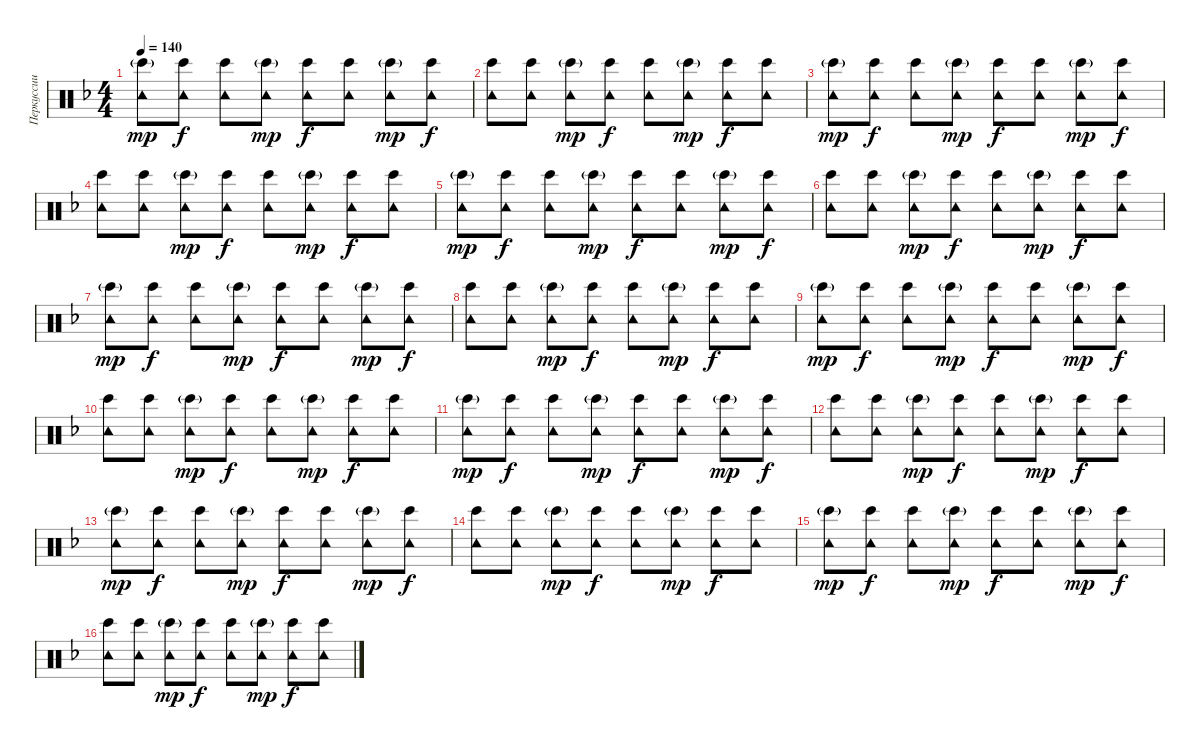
\track ("Перкуссии" "Перкуссии") {instrument percussion}
\staff {score}
\articulation defaults
\ts (4 4)
\tempo 140
\clef neutral
\ks dminor
("Bongo High (hit)"{g} "Tambourine (hit)").8{dy mp} ("Bongo High (hit)" "Tambourine (hit)").8{dy f} ("Bongo High (hit)" "Tambourine (hit)").8 ("Bongo High (hit)"{g} "Tambourine (hit)").8{dy mp} ("Bongo High (hit)" "Tambourine (hit)").8{dy f} ("Bongo High (hit)" "Tambourine (hit)").8 ("Bongo High (hit)"{g} "Tambourine (hit)").8{dy mp} ("Bongo High (hit)" "Tambourine (hit)").8{dy f} |
("Bongo High (hit)" "Tambourine (hit)").8 ("Bongo High (hit)" "Tambourine (hit)").8 ("Bongo High (hit)"{g} "Tambourine (hit)").8{dy mp} ("Bongo High (hit)" "Tambourine (hit)").8{dy f} ("Bongo High (hit)" "Tambourine (hit)").8 ("Bongo High (hit)"{g} "Tambourine (hit)").8{dy mp} ("Bongo High (hit)" "Tambourine (hit)").8{dy f} ("Bongo High (hit)" "Tambourine (hit)").8 |
("Bongo High (hit)"{g} "Tambourine (hit)").8{dy mp} ("Bongo High (hit)" "Tambourine (hit)").8{dy f} ("Bongo High (hit)" "Tambourine (hit)").8 ("Bongo High (hit)"{g} "Tambourine (hit)").8{dy mp} ("Bongo High (hit)" "Tambourine (hit)").8{dy f} ("Bongo High (hit)" "Tambourine (hit)").8 ("Bongo High (hit)"{g} "Tambourine (hit)").8{dy mp} ("Bongo High (hit)" "Tambourine (hit)").8{dy f} |
("Bongo High (hit)" "Tambourine (hit)").8 ("Bongo High (hit)" "Tambourine (hit)").8 ("Bongo High (hit)"{g} "Tambourine (hit)").8{dy mp} ("Bongo High (hit)" "Tambourine (hit)").8{dy f} ("Bongo High (hit)" "Tambourine (hit)").8 ("Bongo High (hit)"{g} "Tambourine (hit)").8{dy mp} ("Bongo High (hit)" "Tambourine (hit)").8{dy f} ("Bongo High (hit)" "Tambourine (hit)").8 |
("Bongo High (hit)"{g} "Tambourine (hit)").8{dy mp} ("Bongo High (hit)" "Tambourine (hit)").8{dy f} ("Bongo High (hit)" "Tambourine (hit)").8 ("Bongo High (hit)"{g} "Tambourine (hit)").8{dy mp} ("Bongo High (hit)" "Tambourine (hit)").8{dy f} ("Bongo High (hit)" "Tambourine (hit)").8 ("Bongo High (hit)"{g} "Tambourine (hit)").8{dy mp} ("Bongo High (hit)" "Tambourine (hit)").8{dy f} |
("Bongo High (hit)" "Tambourine (hit)").8 ("Bongo High (hit)" "Tambourine (hit)").8 ("Bongo High (hit)"{g} "Tambourine (hit)").8{dy mp} ("Bongo High (hit)" "Tambourine (hit)").8{dy f} ("Bongo High (hit)" "Tambourine (hit)").8 ("Bongo High (hit)"{g} "Tambourine (hit)").8{dy mp} ("Bongo High (hit)" "Tambourine (hit)").8{dy f} ("Bongo High (hit)" "Tambourine (hit)").8 |
("Bongo High (hit)"{g} "Tambourine (hit)").8{dy mp} ("Bongo High (hit)" "Tambourine (hit)").8{dy f} ("Bongo High (hit)" "Tambourine (hit)").8 ("Bongo High (hit)"{g} "Tambourine (hit)").8{dy mp} ("Bongo High (hit)" "Tambourine (hit)").8{dy f} ("Bongo High (hit)" "Tambourine (hit)").8 ("Bongo High (hit)"{g} "Tambourine (hit)").8{dy mp} ("Bongo High (hit)" "Tambourine (hit)").8{dy f} |
("Bongo High (hit)" "Tambourine (hit)").8 ("Bongo High (hit)" "Tambourine (hit)").8 ("Bongo High (hit)"{g} "Tambourine (hit)").8{dy mp} ("Bongo High (hit)" "Tambourine (hit)").8{dy f} ("Bongo High (hit)" "Tambourine (hit)").8 ("Bongo High (hit)"{g} "Tambourine (hit)").8{dy mp} ("Bongo High (hit)" "Tambourine (hit)").8{dy f} ("Bongo High (hit)" "Tambourine (hit)").8 |
("Bongo High (hit)"{g} "Tambourine (hit)").8{dy mp} ("Bongo High (hit)" "Tambourine (hit)").8{dy f} ("Bongo High (hit)" "Tambourine (hit)").8 ("Bongo High (hit)"{g} "Tambourine (hit)").8{dy mp} ("Bongo High (hit)" "Tambourine (hit)").8{dy f} ("Bongo High (hit)" "Tambourine (hit)").8 ("Bongo High (hit)"{g} "Tambourine (hit)").8{dy mp} ("Bongo High (hit)" "Tambourine (hit)").8{dy f} |
("Bongo High (hit)" "Tambourine (hit)").8 ("Bongo High (hit)" "Tambourine (hit)").8 ("Bongo High (hit)"{g} "Tambourine (hit)").8{dy mp} ("Bongo High (hit)" "Tambourine (hit)").8{dy f} ("Bongo High (hit)" "Tambourine (hit)").8 ("Bongo High (hit)"{g} "Tambourine (hit)").8{dy mp} ("Bongo High (hit)" "Tambourine (hit)").8{dy f} ("Bongo High (hit)" "Tambourine (hit)").8 |
("Bongo High (hit)"{g} "Tambourine (hit)").8{dy mp} ("Bongo High (hit)" "Tambourine (hit)").8{dy f} ("Bongo High (hit)" "Tambourine (hit)").8 ("Bongo High (hit)"{g} "Tambourine (hit)").8{dy mp} ("Bongo High (hit)" "Tambourine (hit)").8{dy f} ("Bongo High (hit)" "Tambourine (hit)").8 ("Bongo High (hit)"{g} "Tambourine (hit)").8{dy mp} ("Bongo High (hit)" "Tambourine (hit)").8{dy f} |
("Bongo High (hit)" "Tambourine (hit)").8 ("Bongo High (hit)" "Tambourine (hit)").8 ("Bongo High (hit)"{g} "Tambourine (hit)").8{dy mp} ("Bongo High (hit)" "Tambourine (hit)").8{dy f} ("Bongo High (hit)" "Tambourine (hit)").8 ("Bongo High (hit)"{g} "Tambourine (hit)").8{dy mp} ("Bongo High (hit)" "Tambourine (hit)").8{dy f} ("Bongo High (hit)" "Tambourine (hit)").8 |
("Bongo High (hit)"{g} "Tambourine (hit)").8{dy mp} ("Bongo High (hit)" "Tambourine (hit)").8{dy f} ("Bongo High (hit)" "Tambourine (hit)").8 ("Bongo High (hit)"{g} "Tambourine (hit)").8{dy mp} ("Bongo High (hit)" "Tambourine (hit)").8{dy f} ("Bongo High (hit)" "Tambourine (hit)").8 ("Bongo High (hit)"{g} "Tambourine (hit)").8{dy mp} ("Bongo High (hit)" "Tambourine (hit)").8{dy f} |
("Bongo High (hit)" "Tambourine (hit)").8 ("Bongo High (hit)" "Tambourine (hit)").8 ("Bongo High (hit)"{g} "Tambourine (hit)").8{dy mp} ("Bongo High (hit)" "Tambourine (hit)").8{dy f} ("Bongo High (hit)" "Tambourine (hit)").8 ("Bongo High (hit)"{g} "Tambourine (hit)").8{dy mp} ("Bongo High (hit)" "Tambourine (hit)").8{dy f} ("Bongo High (hit)" "Tambourine (hit)").8 |
("Bongo High (hit)"{g} "Tambourine (hit)").8{dy mp} ("Bongo High (hit)" "Tambourine (hit)").8{dy f} ("Bongo High (hit)" "Tambourine (hit)").8 ("Bongo High (hit)"{g} "Tambourine (hit)").8{dy mp} ("Bongo High (hit)" "Tambourine (hit)").8{dy f} ("Bongo High (hit)" "Tambourine (hit)").8 ("Bongo High (hit)"{g} "Tambourine (hit)").8{dy mp} ("Bongo High (hit)" "Tambourine (hit)").8{dy f} |
("Bongo High (hit)" "Tambourine (hit)").8 ("Bongo High (hit)" "Tambourine (hit)").8 ("Bongo High (hit)"{g} "Tambourine (hit)").8{dy mp} ("Bongo High (hit)" "Tambourine (hit)").8{dy f} ("Bongo High (hit)" "Tambourine (hit)").8 ("Bongo High (hit)"{g} "Tambourine (hit)").8{dy mp} ("Bongo High (hit)" "Tambourine (hit)").8{dy f} ("Bongo High (hit)" "Tambourine (hit)").8
